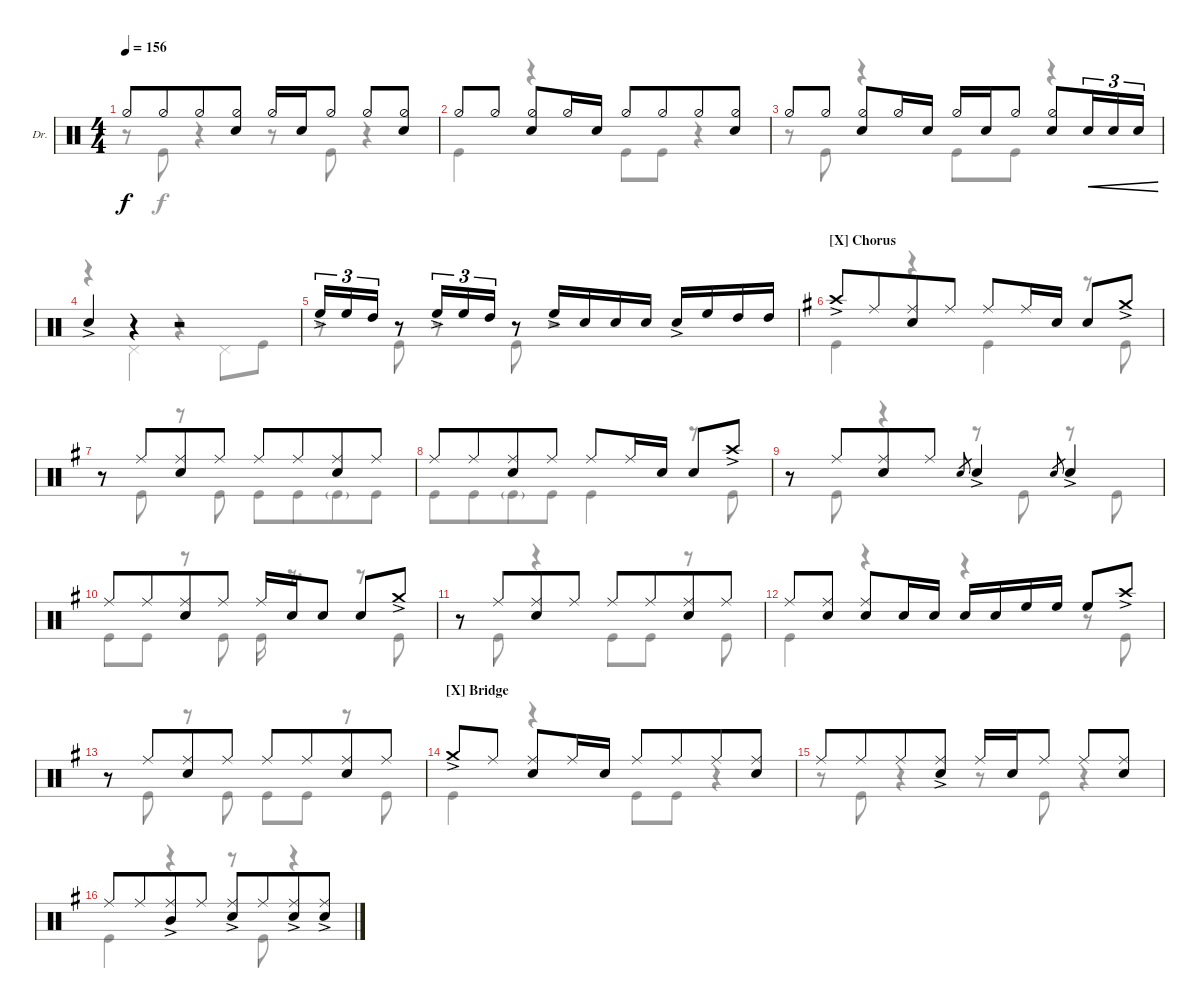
\defaultSystemsLayout 4
\bracketExtendMode groupsimilarinstruments
\firstSystemTrackNameOrientation horizontal
\otherSystemsTrackNameOrientation horizontal
\track ("Drums" "Dr.") {instrument percussion}
\staff {score}
\articulation defaults
\voice
\ts (4 4)
\tempo 156
\clef neutral
\scale
0.332944
\ks c "Hi-Hat (half)".8{dy f} "Hi-Hat (half)".8{beam merge} "Hi-Hat (half)".8
("Hi-Hat (half)" "Snare (hit) 2").8 "Hi-Hat (half)".16 "Snare (hit) 2".16 "Hi-Hat (half)".8 "Hi-Hat (half)".8 ("Hi-Hat (half)" "Snare (hit) 2").8 |
\scale
0.330472 "Hi-Hat (half)".8 "Hi-Hat (half)".8 ("Snare (hit) 2" "Hi-Hat (half)").8 "Hi-Hat (half)".16 "Snare (hit) 2".16 "Hi-Hat (half)".8 "Hi-Hat (half)".8{beam merge} "Hi-Hat (half)".8 ("Snare (hit) 2" "Hi-Hat (half)").8 |
\scale
0.337003 "Hi-Hat (half)".8 "Hi-Hat (half)".8 ("Snare (hit) 2" "Hi-Hat (half)").8 "Hi-Hat (half)".16 "Snare (hit) 2".16 "Hi-Hat (half)".16 "Snare (hit) 2".16 "Hi-Hat (half)".8 ("Snare (hit) 2" "Hi-Hat (half)").8{beam merge} "Snare (hit) 2".16{tu (3 2) cre} "Snare (hit) 2".16{tu (3 2) cre} "Snare (hit) 2".16{tu (3 2) cre} |
\scale
0.281123 "Snare (hit) 2"{ac}.4 r.4 r.2 |
\scale
0.392588 "High Floor Tom (hit)"{ac}.16{tu (3 2)} "High Floor Tom (hit)".16{tu (3 2)} "High Tom (hit)".16{tu (3 2)} r.8 "High Floor Tom (hit)"{ac}.16{tu (3 2)} "High Floor Tom (hit)".16{tu (3 2)} "High Tom (hit)".16{tu (3 2)} r.8 "High Floor Tom (hit)"{ac}.16 "Snare (hit) 2".16 "Snare (hit) 2".16 "Snare (hit) 2".16 "Snare (hit) 2"{ac}.16 "High Floor Tom (hit)".16 "High Tom (hit)".16 "High Tom (hit)".16 |
\section ("X" "Chorus")
\scale
0.326266
\ks g "Crash high (hit)"{ac}.8 "Ride (middle)".8{beam merge}
("Ride (middle)" "Snare (hit) 2").8 "Ride (middle)".8 "Ride (middle)".8 "Ride (middle)".16 "Snare (hit) 2".16 "Snare (hit) 2".8 "Crash medium (hit)"{ac}.8 |
\scale
0.355362 r.8 "Ride (middle)".8{beam merge} ("Ride (middle)" "Snare (hit) 2").8 "Ride (middle)".8 "Ride (middle)".8 "Ride (middle)".8{beam merge} ("Ride (middle)" "Snare (hit) 2").8 "Ride (middle)".8 |
\scale
0.33594 "Ride (middle)".8 "Ride (middle)".8{beam merge} ("Ride (middle)" "Snare (hit) 2").8 "Ride (middle)".8 "Ride (middle)".8 "Ride (middle)".16 "Snare (hit) 2".16 "Snare (hit) 2".8 "Crash high (hit)"{ac}.8 |
\scale
0.308605 r.8 "Ride (middle)".8{beam merge} ("Ride (middle)" "Snare (hit) 2").8 "Ride (middle)".8 "Snare (hit) 2".8{gr} "Snare (hit) 2"{ac}.4 "Snare (hit) 2".8{gr} "Snare (hit) 2"{ac}.4 |
\scale
0.348271 "Ride (middle)".8 "Ride (middle)".8{beam merge} ("Ride (middle)" "Snare (hit) 2").8 "Ride (middle)".8 "Ride (middle)".16 "Snare (hit) 2".16 "Snare (hit) 2".8 "Snare (hit) 2".8 "Crash medium (hit)"{ac}.8 |
\scale
0.337344 r.8 "Ride (middle)".8{beam merge} ("Ride (middle)" "Snare (hit) 2").8 "Ride (middle)".8 "Ride (middle)".8 "Ride (middle)".8{beam merge} ("Ride (middle)" "Snare (hit) 2").8 "Ride (middle)".8 |
\scale
0.314659 "Ride (middle)".8 ("Ride (middle)" "Snare (hit) 2").8 ("Ride (middle)" "Snare (hit) 2").8 "Snare (hit) 2".16 "Snare (hit) 2".16 "Snare (hit) 2".16 "Snare (hit) 2".16 "High Floor Tom (hit)".16 "High Floor Tom (hit)".16 "High Floor Tom (hit)".8 "Crash high (hit)"{ac}.8 |
\scale
0.349502 r.8 "Ride (middle)".8{beam merge} ("Ride (middle)" "Snare (hit) 2").8 "Ride (middle)".8 "Ride (middle)".8 "Ride (middle)".8{beam merge} ("Ride (middle)" "Snare (hit) 2").8 "Ride (middle)".8 |
\section ("X" "Bridge")
\scale
0.324479 "Crash medium (hit)"{ac}.8 "Ride (middle)".8 ("Ride (middle)" "Snare (hit) 2").8 "Ride (middle)".16 "Snare (hit) 2".16 "Ride (middle)".8 "Ride (middle)".8{beam merge} "Ride (middle)".8 ("Ride (middle)" "Snare (hit) 2").8 |
\scale
0.326049 "Ride (middle)".8 "Ride (middle)".8{beam merge} "Ride (middle)".8 ("Ride (middle)"{ac} "Snare (hit) 2"{ac}).8 "Ride (middle)".16 "Snare (hit) 2".16 "Ride (middle)".8 "Ride (middle)".8 ("Ride (middle)" "Snare (hit) 2").8 |
\scale
0.339525 "Ride (middle)".8 "Ride (middle)".8{beam merge} ("Ride (middle)"{ac} "Mid Tom (hit)"{ac}).8 "Ride (middle)".8 ("Ride (middle)"{ac} "Snare (hit) 2"{ac}).8 "Ride (middle)".8{beam merge} ("Ride (middle)"{ac} "Snare (hit) 2"{ac}).8 ("Ride (middle)"{ac} "Snare (hit) 2"{ac}).8
\voice
\clef neutral
\ottava regular
\simile none
\scale
0.332944
\ks c
r.8{dy f} "Kick (hit)".8 r.4 r.8 "Kick (hit)".8 r.4 |
\scale
0.330472 "Kick (hit)".4 r.4 "Kick (hit)".8 "Kick (hit)".8 r.4 |
\scale
0.337003 r.8 "Kick (hit)".8 r.4 "Kick (hit)".8 "Kick (hit)".8 r.4 |
\scale
0.281123 r.4 "Pedal Hi-Hat (hit)".4 r.4 "Pedal Hi-Hat (hit)".8 "Kick (hit)".8 |
\scale
0.392588 r.8 "Kick (hit)".8 r.8 "Kick (hit)".8 r.2 |
\scale
0.326266
\ks g "Kick (hit)".4
r.4 "Kick (hit)".4 r.8 "Kick (hit)".8 |
\scale
0.355362 r.8 "Kick (hit)".8 r.8 "Kick (hit)".8 "Kick (hit)".8 "Kick (hit)".8{beam merge} "Kick (hit)"{g}.8 "Kick (hit)".8 |
\scale
0.33594 "Kick (hit)".8 "Kick (hit)".8{beam merge} "Kick (hit)"{g}.8 "Kick (hit)".8 "Kick (hit)".4 r.8 "Kick (hit)".8 |
\scale
0.308605 r.8 "Kick (hit)".8 r.4 r.8 "Kick (hit)".8 r.8 "Kick (hit)".8 |
\scale
0.348271 "Kick (hit)".8 "Kick (hit)".8 r.8 "Kick (hit)".8 "Kick (hit)".16 r.8{d} r.8 "Kick (hit)".8 |
\scale
0.337344 r.8 "Kick (hit)".8 r.4 "Kick (hit)".8 "Kick (hit)".8 r.8 "Kick (hit)".8 |
\scale
0.314659 "Kick (hit)".4 r.4 r.4 r.8 "Kick (hit)".8 |
\scale
0.349502 r.8 "Kick (hit)".8 r.8 "Kick (hit)".8 "Kick (hit)".8 "Kick (hit)".8 r.8 "Kick (hit)".8 |
\scale
0.324479 "Kick (hit)".4 r.4 "Kick (hit)".8 "Kick (hit)".8 r.4 |
\scale
0.326049 r.8 "Kick (hit)".8 r.4 r.8 "Kick (hit)".8 r.4 |
\scale
0.339525 "Kick (hit)".4 r.4 r.8 "Kick (hit)".8 r.4
